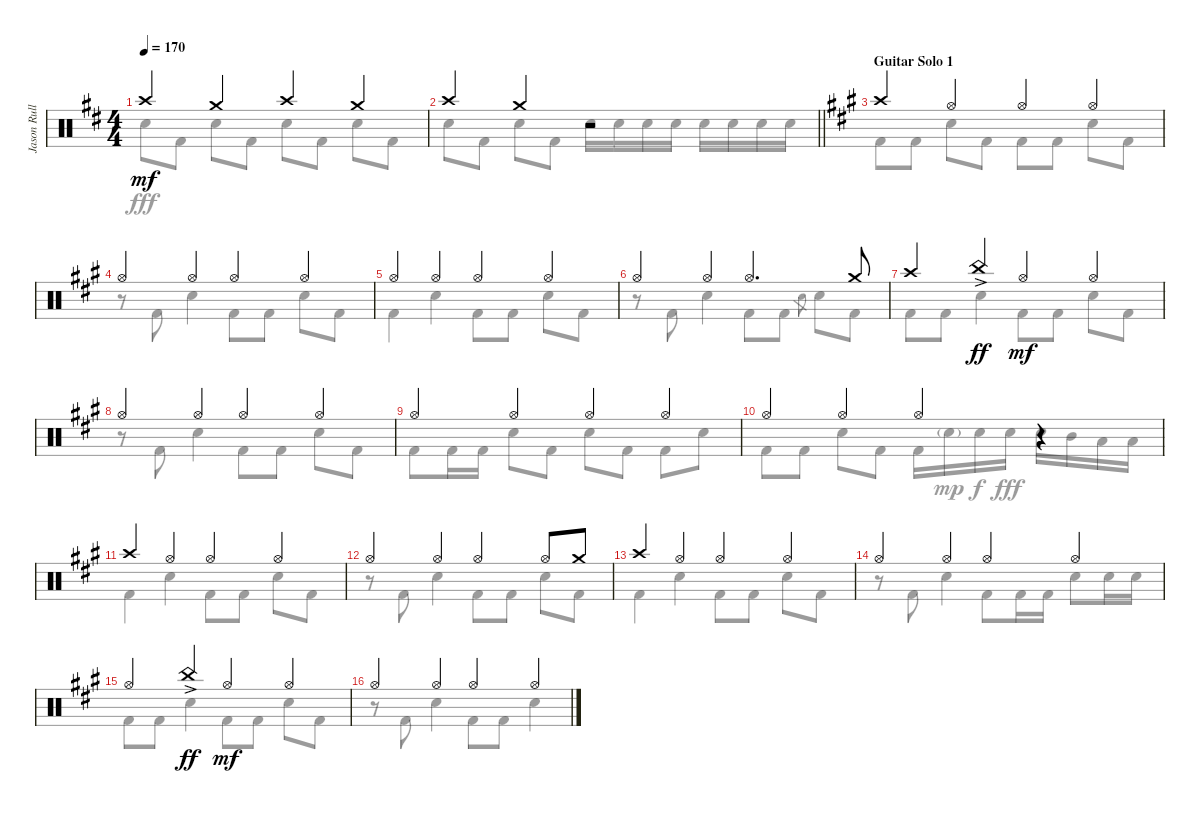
\track ("Jason Rullo Drums" "Jason Rull") {instrument percussion}
\staff {score}
\articulation defaults
\voice
\ts (4 4)
\tempo 170
\clef neutral
\ks bminor "Crash high (hit)".4{dy mf} "Crash medium (hit)".4 "Crash high (hit)".4 "Crash medium (hit)".4
|
\barLineRight lightlight "Crash high (hit)".4 "Crash medium (hit)".4
r.2 |
\section ("" "Guitar Solo 1")
\ks f#minor "Crash high (hit)".4 "Hi-Hat (open)".4 "Hi-Hat (open)".4 "Hi-Hat (open)".4
|
"Hi-Hat (open)".4 "Hi-Hat (open)".4 "Hi-Hat (open)".4 "Hi-Hat (open)".4 |
"Hi-Hat (open)".4 "Hi-Hat (open)".4 "Hi-Hat (open)".4 "Hi-Hat (open)".4 |
"Hi-Hat (open)".4 "Hi-Hat (open)".4 "Hi-Hat (open)".4{d} "Crash medium (hit)".8 |
"Crash high (hit)".4 "China (hit)"{ac}.4{dy ff} "Hi-Hat (open)".4{dy mf} "Hi-Hat (open)".4 |
"Hi-Hat (open)".4 "Hi-Hat (open)".4 "Hi-Hat (open)".4 "Hi-Hat (open)".4 |
"Hi-Hat (open)".4 "Hi-Hat (open)".4 "Hi-Hat (open)".4 "Hi-Hat (open)".4 |
"Hi-Hat (open)".4 "Hi-Hat (open)".4 "Hi-Hat (open)".4 r.4 |
"Crash high (hit)".4 "Hi-Hat (open)".4 "Hi-Hat (open)".4 "Hi-Hat (open)".4 |
"Hi-Hat (open)".4 "Hi-Hat (open)".4 "Hi-Hat (open)".4 "Hi-Hat (open)".8 "Crash medium (hit)".8 |
"Crash high (hit)".4 "Hi-Hat (open)".4 "Hi-Hat (open)".4 "Hi-Hat (open)".4 |
"Hi-Hat (open)".4 "Hi-Hat (open)".4 "Hi-Hat (open)".4 "Hi-Hat (open)".4 |
"Hi-Hat (open)".4 "China (hit)"{ac}.4{dy ff} "Hi-Hat (open)".4{dy mf} "Hi-Hat (open)".4 |
"Hi-Hat (open)".4 "Hi-Hat (open)".4 "Hi-Hat (open)".4 "Hi-Hat (open)".4
\voice
\clef neutral
\ottava regular
\simile none
\ks bminor "Electric Snare (hit)".8{dy fff} "Kick (hit) 2".8 "Electric Snare (hit)".8 "Kick (hit) 2".8 "Electric Snare (hit)".8 "Kick (hit) 2".8 "Electric Snare (hit)".8 "Kick (hit) 2".8
|
\barLineRight lightlight "Electric Snare (hit)".8 "Kick (hit) 2".8 "Electric Snare (hit)".8 "Kick (hit) 2".8 "Electric Snare (hit)".16 "Electric Snare (hit)".16 "Electric Snare (hit)".16 "Electric Snare (hit)".16 "Electric Snare (hit)".16 "Electric Snare (hit)".16 "Electric Snare (hit)".16 "Electric Snare (hit)".16
|
\ks f#minor "Kick (hit) 2".8 "Kick (hit) 2".8 "Electric Snare (hit)".8 "Kick (hit) 2".8 "Kick (hit) 2".8 "Kick (hit) 2".8 "Electric Snare (hit)".8 "Kick (hit) 2".8
|
r.8 "Kick (hit) 2".8 "Electric Snare (hit)".4 "Kick (hit) 2".8 "Kick (hit) 2".8 "Electric Snare (hit)".8 "Kick (hit) 2".8 |
"Kick (hit) 2".4 "Electric Snare (hit)".4 "Kick (hit) 2".8 "Kick (hit) 2".8 "Electric Snare (hit)".8 "Kick (hit) 2".8 |
r.8 "Kick (hit) 2".8 "Electric Snare (hit)".4 "Kick (hit) 2".8 "Kick (hit) 2".8 "Electric Snare (hit)".8{gr} "Electric Snare (hit)".8 "Kick (hit) 2".8 |
"Kick (hit) 2".8 "Kick (hit) 2".8 "Electric Snare (hit)".4 "Kick (hit) 2".8 "Kick (hit) 2".8 "Electric Snare (hit)".8 "Kick (hit) 2".8 |
r.8 "Kick (hit) 2".8 "Electric Snare (hit)".4 "Kick (hit) 2".8 "Kick (hit) 2".8 "Electric Snare (hit)".8 "Kick (hit) 2".8 |
"Kick (hit) 2".8 "Kick (hit) 2".16 "Kick (hit) 2".16 "Electric Snare (hit)".8 "Kick (hit) 2".8 "Electric Snare (hit)".8 "Kick (hit) 2".8 "Kick (hit) 2".8 "Electric Snare (hit)".8 |
"Kick (hit) 2".8 "Kick (hit) 2".8 "Electric Snare (hit)".8 "Kick (hit) 2".8 "Kick (hit) 2".16 "Electric Snare (hit)"{g}.16{dy mp} "Electric Snare (hit)".16{dy f} "Electric Snare (hit)".16{dy fff} "Electric Snare (hit)".16 "Mid Tom (hit)".16 "Low Tom (hit)".16 "Low Tom (hit)".16 |
"Kick (hit) 2".4 "Electric Snare (hit)".4 "Kick (hit) 2".8 "Kick (hit) 2".8 "Electric Snare (hit)".8 "Kick (hit) 2".8 |
r.8 "Kick (hit) 2".8 "Electric Snare (hit)".4 "Kick (hit) 2".8 "Kick (hit) 2".8 "Electric Snare (hit)".8 "Kick (hit) 2".8 |
"Kick (hit) 2".4 "Electric Snare (hit)".4 "Kick (hit) 2".8 "Kick (hit) 2".8 "Electric Snare (hit)".8 "Kick (hit) 2".8 |
r.8 "Kick (hit) 2".8 "Electric Snare (hit)".4 "Kick (hit) 2".8 "Kick (hit) 2".16 "Kick (hit) 2".16 "Electric Snare (hit)".8 "Electric Snare (hit)".16 "Electric Snare (hit)".16 |
"Kick (hit) 2".8 "Kick (hit) 2".8 "Electric Snare (hit)".4 "Kick (hit) 2".8 "Kick (hit) 2".8 "Electric Snare (hit)".8 "Kick (hit) 2".8 |
r.8 "Kick (hit) 2".8 "Electric Snare (hit)".4 "Kick (hit) 2".8 "Kick (hit) 2".8 "Electric Snare (hit)".4
